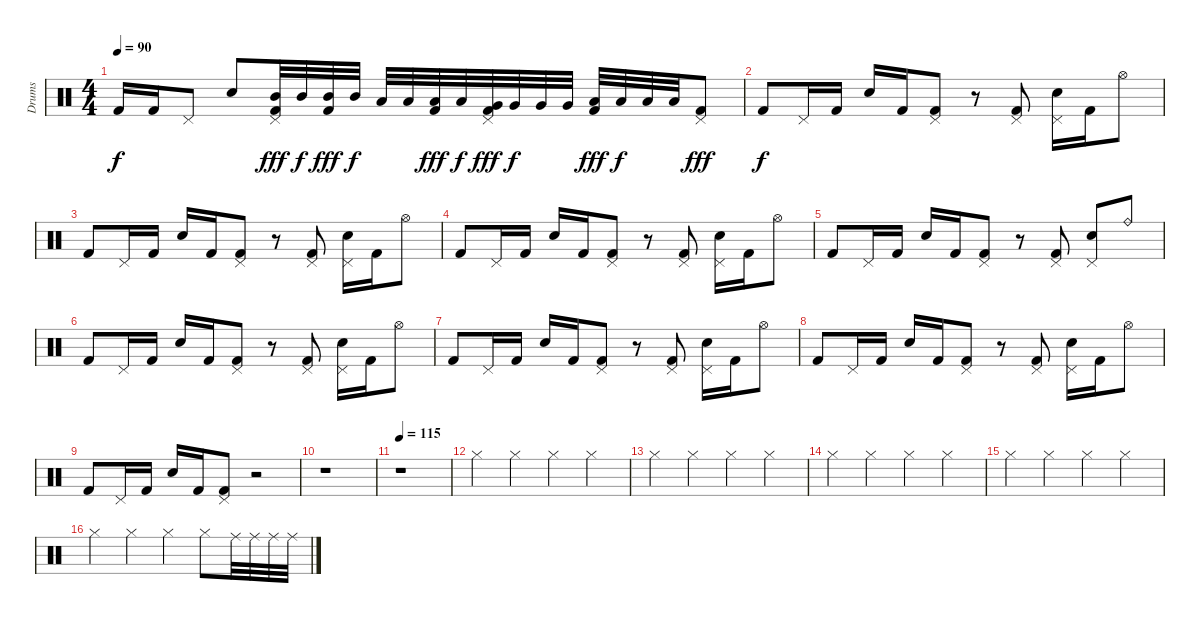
\track ("Drums" "Drums") {instrument percussion}
\staff {score}
\articulation defaults
\ts (4 4)
\tempo 90
\clef neutral
\ks c "Kick (hit) 2".16{dy f} "Kick (hit) 2".16 "Pedal Hi-Hat (hit)".8 "Electric Snare (hit)".8
("Pedal Hi-Hat (hit)" "Mid Tom (hit)" "Kick (hit) 2").32{dy fff} "Mid Tom (hit)".32{dy f} ("Mid Tom (hit)" "Kick (hit) 2").32{dy fff} "Mid Tom (hit)".32{dy f} "Low Tom (hit)".32 "Low Tom (hit)".32 ("Low Tom (hit)" "Kick (hit) 2").32{dy fff} "Low Tom (hit)".32{dy f} ("Pedal Hi-Hat (hit)" "Very Low Tom (hit)" "Kick (hit) 2").32{dy fff} "Very Low Tom (hit)".32{dy f} "Very Low Tom (hit)".32 "Very Low Tom (hit)".32 ("Low Floor Tom (hit)" "Kick (hit) 2").32{dy fff} "Low Floor Tom (hit)".32{dy f} "Low Floor Tom (hit)".32 "Low Floor Tom (hit)".32 ("Pedal Hi-Hat (hit)" "Kick (hit) 2").8{dy fff} |
"Kick (hit) 2".8{dy f} "Pedal Hi-Hat (hit)".16 "Kick (hit) 2".16 "Electric Snare (hit)".16 "Kick (hit) 2".16 ("Pedal Hi-Hat (hit)" "Kick (hit) 2").8 r.8 ("Pedal Hi-Hat (hit)" "Kick (hit) 2").8 ("Pedal Hi-Hat (hit)" "Electric Snare (hit)").16 "Kick (hit) 2".16 "Hi-Hat (open)".8 |
"Kick (hit) 2".8 "Pedal Hi-Hat (hit)".16 "Kick (hit) 2".16 "Electric Snare (hit)".16 "Kick (hit) 2".16 ("Pedal Hi-Hat (hit)" "Kick (hit) 2").8 r.8 ("Pedal Hi-Hat (hit)" "Kick (hit) 2").8 ("Pedal Hi-Hat (hit)" "Electric Snare (hit)").16 "Kick (hit) 2".16 "Hi-Hat (open)".8 |
"Kick (hit) 2".8 "Pedal Hi-Hat (hit)".16 "Kick (hit) 2".16 "Electric Snare (hit)".16 "Kick (hit) 2".16 ("Pedal Hi-Hat (hit)" "Kick (hit) 2").8 r.8 ("Pedal Hi-Hat (hit)" "Kick (hit) 2").8 ("Pedal Hi-Hat (hit)" "Electric Snare (hit)").16 "Kick (hit) 2".16 "Hi-Hat (open)".8 |
"Kick (hit) 2".8 "Pedal Hi-Hat (hit)".16 "Kick (hit) 2".16 "Electric Snare (hit)".16 "Kick (hit) 2".16 ("Pedal Hi-Hat (hit)" "Kick (hit) 2").8 r.8 ("Pedal Hi-Hat (hit)" "Kick (hit) 2").8 ("Pedal Hi-Hat (hit)" "Electric Snare (hit)").8 "Ride (bell)".8 |
"Kick (hit) 2".8 "Pedal Hi-Hat (hit)".16 "Kick (hit) 2".16 "Electric Snare (hit)".16 "Kick (hit) 2".16 ("Pedal Hi-Hat (hit)" "Kick (hit) 2").8 r.8 ("Pedal Hi-Hat (hit)" "Kick (hit) 2").8 ("Pedal Hi-Hat (hit)" "Electric Snare (hit)").16 "Kick (hit) 2".16 "Hi-Hat (open)".8 |
"Kick (hit) 2".8 "Pedal Hi-Hat (hit)".16 "Kick (hit) 2".16 "Electric Snare (hit)".16 "Kick (hit) 2".16 ("Pedal Hi-Hat (hit)" "Kick (hit) 2").8 r.8 ("Pedal Hi-Hat (hit)" "Kick (hit) 2").8 ("Pedal Hi-Hat (hit)" "Electric Snare (hit)").16 "Kick (hit) 2".16 "Hi-Hat (open)".8 |
"Kick (hit) 2".8 "Pedal Hi-Hat (hit)".16 "Kick (hit) 2".16 "Electric Snare (hit)".16 "Kick (hit) 2".16 ("Pedal Hi-Hat (hit)" "Kick (hit) 2").8 r.8 ("Pedal Hi-Hat (hit)" "Kick (hit) 2").8 ("Pedal Hi-Hat (hit)" "Electric Snare (hit)").16 "Kick (hit) 2".16 "Hi-Hat (open)".8 |
"Kick (hit) 2".8 "Pedal Hi-Hat (hit)".16 "Kick (hit) 2".16 "Electric Snare (hit)".16 "Kick (hit) 2".16 ("Pedal Hi-Hat (hit)" "Kick (hit) 2").8 r.2 |
r.1 |
\tempo 115
r.1 |
"Hi-Hat (closed)".4 "Hi-Hat (closed)".4 "Hi-Hat (closed)".4 "Hi-Hat (closed)".4 |
"Hi-Hat (closed)".4 "Hi-Hat (closed)".4 "Hi-Hat (closed)".4 "Hi-Hat (closed)".4 |
"Hi-Hat (closed)".4 "Hi-Hat (closed)".4 "Hi-Hat (closed)".4 "Hi-Hat (closed)".4 |
"Hi-Hat (closed)".4 "Hi-Hat (closed)".4 "Hi-Hat (closed)".4 "Hi-Hat (closed)".4 |
"Hi-Hat (closed)".4 "Hi-Hat (closed)".4 "Hi-Hat (closed)".4 "Hi-Hat (closed)".8 "Ride (middle)".32 "Ride (middle)".32 "Ride (middle)".32 "Ride (middle)".32
